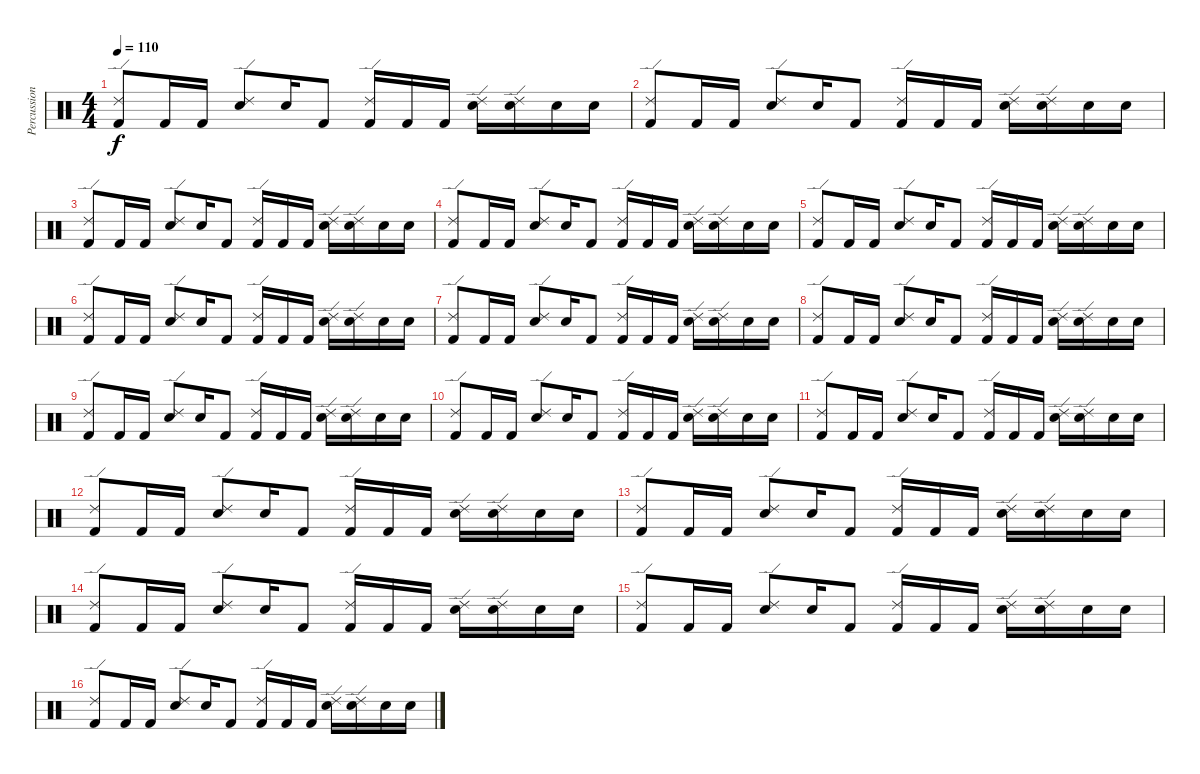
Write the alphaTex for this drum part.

\track ("Percussion" "Percussion") {instrument percussion}
\staff {score}
\articulation defaults
\ts (4 4)
\tempo 110
\clef neutral
\ks c
("Ride (edge) 2" "Kick (hit) 2").8{dy f} "Kick (hit) 2".16 "Kick (hit) 2".16 ("Ride (edge) 2" "Electric Snare (hit)").8 "Electric Snare (hit)".16 "Kick (hit) 2".8 ("Ride (edge) 2" "Kick (hit) 2").16 "Kick (hit) 2".16 "Kick (hit) 2".16 ("Ride (edge) 2" "Electric Snare (hit)").16 ("Ride (edge) 2" "Electric Snare (hit)").16 "Electric Snare (hit)".16 "Electric Snare (hit)".16 |
("Ride (edge) 2" "Kick (hit) 2").8 "Kick (hit) 2".16 "Kick (hit) 2".16 ("Ride (edge) 2" "Electric Snare (hit)").8 "Electric Snare (hit)".16 "Kick (hit) 2".8 ("Ride (edge) 2" "Kick (hit) 2").16 "Kick (hit) 2".16 "Kick (hit) 2".16 ("Ride (edge) 2" "Electric Snare (hit)").16 ("Ride (edge) 2" "Electric Snare (hit)").16 "Electric Snare (hit)".16 "Electric Snare (hit)".16 |
("Ride (edge) 2" "Kick (hit) 2").8 "Kick (hit) 2".16 "Kick (hit) 2".16 ("Ride (edge) 2" "Electric Snare (hit)").8 "Electric Snare (hit)".16 "Kick (hit) 2".8 ("Ride (edge) 2" "Kick (hit) 2").16 "Kick (hit) 2".16 "Kick (hit) 2".16 ("Ride (edge) 2" "Electric Snare (hit)").16 ("Ride (edge) 2" "Electric Snare (hit)").16 "Electric Snare (hit)".16 "Electric Snare (hit)".16 |
("Ride (edge) 2" "Kick (hit) 2").8 "Kick (hit) 2".16 "Kick (hit) 2".16 ("Ride (edge) 2" "Electric Snare (hit)").8 "Electric Snare (hit)".16 "Kick (hit) 2".8 ("Ride (edge) 2" "Kick (hit) 2").16 "Kick (hit) 2".16 "Kick (hit) 2".16 ("Ride (edge) 2" "Electric Snare (hit)").16 ("Ride (edge) 2" "Electric Snare (hit)").16 "Electric Snare (hit)".16 "Electric Snare (hit)".16 |
("Ride (edge) 2" "Kick (hit) 2").8 "Kick (hit) 2".16 "Kick (hit) 2".16 ("Ride (edge) 2" "Electric Snare (hit)").8 "Electric Snare (hit)".16 "Kick (hit) 2".8 ("Ride (edge) 2" "Kick (hit) 2").16 "Kick (hit) 2".16 "Kick (hit) 2".16 ("Ride (edge) 2" "Electric Snare (hit)").16 ("Ride (edge) 2" "Electric Snare (hit)").16 "Electric Snare (hit)".16 "Electric Snare (hit)".16 |
("Ride (edge) 2" "Kick (hit) 2").8 "Kick (hit) 2".16 "Kick (hit) 2".16 ("Ride (edge) 2" "Electric Snare (hit)").8 "Electric Snare (hit)".16 "Kick (hit) 2".8 ("Ride (edge) 2" "Kick (hit) 2").16 "Kick (hit) 2".16 "Kick (hit) 2".16 ("Ride (edge) 2" "Electric Snare (hit)").16 ("Ride (edge) 2" "Electric Snare (hit)").16 "Electric Snare (hit)".16 "Electric Snare (hit)".16 |
("Ride (edge) 2" "Kick (hit) 2").8 "Kick (hit) 2".16 "Kick (hit) 2".16 ("Ride (edge) 2" "Electric Snare (hit)").8 "Electric Snare (hit)".16 "Kick (hit) 2".8 ("Ride (edge) 2" "Kick (hit) 2").16 "Kick (hit) 2".16 "Kick (hit) 2".16 ("Ride (edge) 2" "Electric Snare (hit)").16 ("Ride (edge) 2" "Electric Snare (hit)").16 "Electric Snare (hit)".16 "Electric Snare (hit)".16 |
("Ride (edge) 2" "Kick (hit) 2").8 "Kick (hit) 2".16 "Kick (hit) 2".16 ("Ride (edge) 2" "Electric Snare (hit)").8 "Electric Snare (hit)".16 "Kick (hit) 2".8 ("Ride (edge) 2" "Kick (hit) 2").16 "Kick (hit) 2".16 "Kick (hit) 2".16 ("Ride (edge) 2" "Electric Snare (hit)").16 ("Ride (edge) 2" "Electric Snare (hit)").16 "Electric Snare (hit)".16 "Electric Snare (hit)".16 |
("Ride (edge) 2" "Kick (hit) 2").8 "Kick (hit) 2".16 "Kick (hit) 2".16 ("Ride (edge) 2" "Electric Snare (hit)").8 "Electric Snare (hit)".16 "Kick (hit) 2".8 ("Ride (edge) 2" "Kick (hit) 2").16 "Kick (hit) 2".16 "Kick (hit) 2".16 ("Ride (edge) 2" "Electric Snare (hit)").16 ("Ride (edge) 2" "Electric Snare (hit)").16 "Electric Snare (hit)".16 "Electric Snare (hit)".16 |
("Ride (edge) 2" "Kick (hit) 2").8 "Kick (hit) 2".16 "Kick (hit) 2".16 ("Ride (edge) 2" "Electric Snare (hit)").8 "Electric Snare (hit)".16 "Kick (hit) 2".8 ("Ride (edge) 2" "Kick (hit) 2").16 "Kick (hit) 2".16 "Kick (hit) 2".16 ("Ride (edge) 2" "Electric Snare (hit)").16 ("Ride (edge) 2" "Electric Snare (hit)").16 "Electric Snare (hit)".16 "Electric Snare (hit)".16 |
("Ride (edge) 2" "Kick (hit) 2").8 "Kick (hit) 2".16 "Kick (hit) 2".16 ("Ride (edge) 2" "Electric Snare (hit)").8 "Electric Snare (hit)".16 "Kick (hit) 2".8 ("Ride (edge) 2" "Kick (hit) 2").16 "Kick (hit) 2".16 "Kick (hit) 2".16 ("Ride (edge) 2" "Electric Snare (hit)").16 ("Ride (edge) 2" "Electric Snare (hit)").16 "Electric Snare (hit)".16 "Electric Snare (hit)".16 |
("Ride (edge) 2" "Kick (hit) 2").8 "Kick (hit) 2".16 "Kick (hit) 2".16 ("Ride (edge) 2" "Electric Snare (hit)").8 "Electric Snare (hit)".16 "Kick (hit) 2".8 ("Ride (edge) 2" "Kick (hit) 2").16 "Kick (hit) 2".16 "Kick (hit) 2".16 ("Ride (edge) 2" "Electric Snare (hit)").16 ("Ride (edge) 2" "Electric Snare (hit)").16 "Electric Snare (hit)".16 "Electric Snare (hit)".16 |
("Ride (edge) 2" "Kick (hit) 2").8 "Kick (hit) 2".16 "Kick (hit) 2".16 ("Ride (edge) 2" "Electric Snare (hit)").8 "Electric Snare (hit)".16 "Kick (hit) 2".8 ("Ride (edge) 2" "Kick (hit) 2").16 "Kick (hit) 2".16 "Kick (hit) 2".16 ("Ride (edge) 2" "Electric Snare (hit)").16 ("Ride (edge) 2" "Electric Snare (hit)").16 "Electric Snare (hit)".16 "Electric Snare (hit)".16 |
("Ride (edge) 2" "Kick (hit) 2").8 "Kick (hit) 2".16 "Kick (hit) 2".16 ("Ride (edge) 2" "Electric Snare (hit)").8 "Electric Snare (hit)".16 "Kick (hit) 2".8 ("Ride (edge) 2" "Kick (hit) 2").16 "Kick (hit) 2".16 "Kick (hit) 2".16 ("Ride (edge) 2" "Electric Snare (hit)").16 ("Ride (edge) 2" "Electric Snare (hit)").16 "Electric Snare (hit)".16 "Electric Snare (hit)".16 |
("Ride (edge) 2" "Kick (hit) 2").8 "Kick (hit) 2".16 "Kick (hit) 2".16 ("Ride (edge) 2" "Electric Snare (hit)").8 "Electric Snare (hit)".16 "Kick (hit) 2".8 ("Ride (edge) 2" "Kick (hit) 2").16 "Kick (hit) 2".16 "Kick (hit) 2".16 ("Ride (edge) 2" "Electric Snare (hit)").16 ("Ride (edge) 2" "Electric Snare (hit)").16 "Electric Snare (hit)".16 "Electric Snare (hit)".16 |
("Ride (edge) 2" "Kick (hit) 2").8 "Kick (hit) 2".16 "Kick (hit) 2".16 ("Ride (edge) 2" "Electric Snare (hit)").8 "Electric Snare (hit)".16 "Kick (hit) 2".8 ("Ride (edge) 2" "Kick (hit) 2").16 "Kick (hit) 2".16 "Kick (hit) 2".16 ("Ride (edge) 2" "Electric Snare (hit)").16 ("Ride (edge) 2" "Electric Snare (hit)").16 "Electric Snare (hit)".16 "Electric Snare (hit)".16
